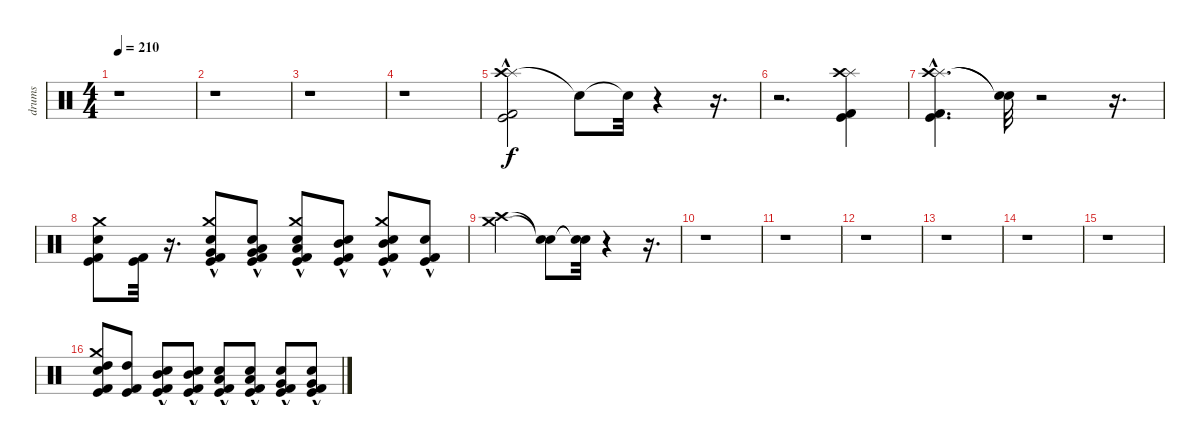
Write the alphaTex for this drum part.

\track ("drums" "drums") {instrument percussion}
\staff {score}
\articulation defaults
\ts (4 4)
\tempo 210
\clef neutral
\ks c
r.1{dy f} |
r.1 |
r.1 |
r.1 |
("Splash (hit)" "Kick (hit)"{hac} "Kick (hit) 2"{hac} "Crash high (hit)").2 "Snare (hit)"{t}.8 "Snare (hit)"{t}.32 r.4 r.16{d} |
r.2{d} ("Splash (hit)" "Crash high (hit)" "Kick (hit)" "Kick (hit) 2").4 |
("Splash (hit)"{hac} "Crash high (hit)"{hac} "Kick (hit)" "Kick (hit) 2").4{d} ("Snare (hit)"{t} "Snare (hit)"{t}).32 r.2 r.16{d} |
("Snare (hit) 2" "Crash medium (hit)" "Kick (hit) 2" "Kick (hit)").8 ("Kick (hit)" "Kick (hit) 2").32 r.16{d} ("Snare (hit) 2"{hac} "Crash medium (hit)" "Kick (hit)" "Kick (hit) 2" "Very Low Tom (hit)").8 ("Kick (hit)" "Kick (hit) 2" "Snare (hit) 2"{hac} "Very Low Tom (hit)" "Low Tom (hit)").8 ("Snare (hit) 2"{hac} "Crash medium (hit)" "Kick (hit)" "Kick (hit) 2" "Low Tom (hit)").8 ("Kick (hit)" "Kick (hit) 2" "Snare (hit) 2"{hac} "Mid Tom (hit)").8 ("Snare (hit) 2"{hac} "Crash medium (hit)" "Kick (hit)" "Kick (hit) 2" "Mid Tom (hit)").8 ("Kick (hit)" "Kick (hit) 2" "Snare (hit) 2"{hac}).8 |
("Crash high (hit)" "Crash medium (hit)").2 ("Snare (hit)"{t} "Snare (hit)"{t}).8 ("Snare (hit)"{t} "Snare (hit)"{t}).32 r.4 r.16{d} |
r.1 |
r.1 |
r.1 |
r.1 |
r.1 |
r.1 |
("Crash medium (hit)" "High Tom (hit)" "Snare (hit) 2" "Kick (hit) 2" "Kick (hit)").8 ("High Tom (hit)" "Kick (hit)" "Kick (hit) 2").8 ("Mid Tom (hit)" "Snare (hit) 2"{hac} "Kick (hit)" "Kick (hit) 2").8 ("Mid Tom (hit)" "Kick (hit)" "Kick (hit) 2" "Snare (hit) 2"{hac}).8 ("Low Tom (hit)" "Snare (hit) 2"{hac} "Kick (hit)" "Kick (hit) 2").8 ("Low Tom (hit)" "Kick (hit)" "Kick (hit) 2" "Snare (hit) 2"{hac}).8 ("Very Low Tom (hit)" "Snare (hit) 2"{hac} "Kick (hit)" "Kick (hit) 2").8 ("Very Low Tom (hit)" "Kick (hit)" "Kick (hit) 2" "Snare (hit) 2"{hac}).8
